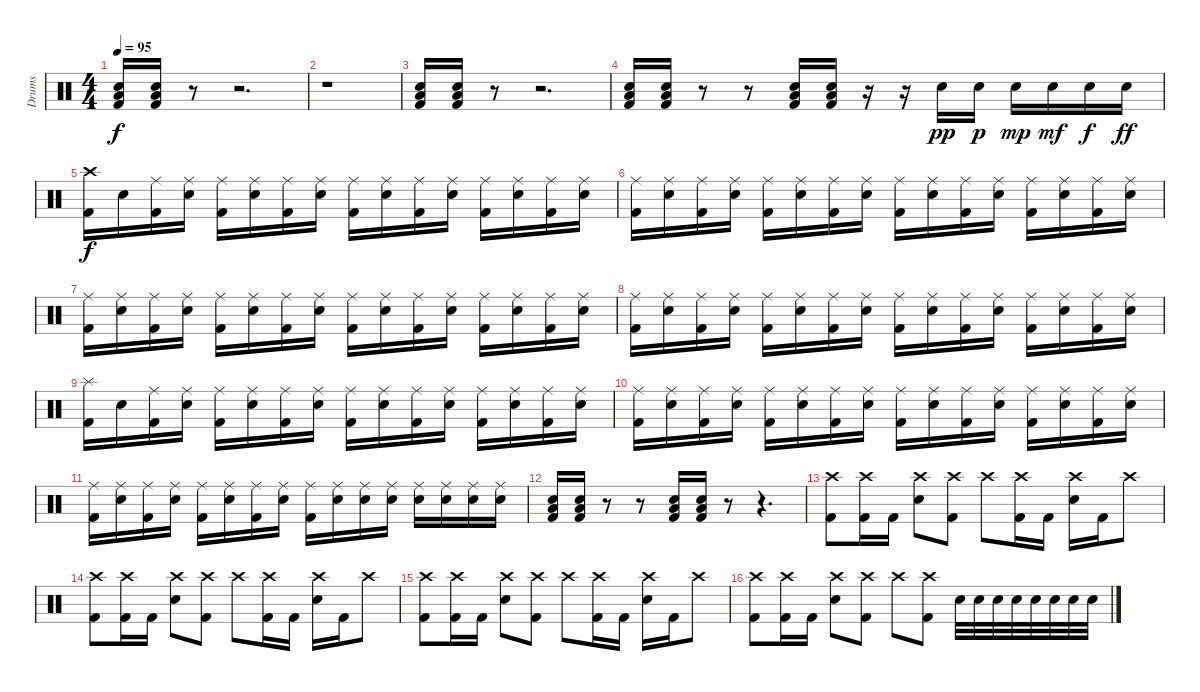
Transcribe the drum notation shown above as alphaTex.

\track ("Drums" "Drums") {instrument percussion}
\staff {score}
\articulation defaults
\ts (4 4)
\tempo 95
\clef neutral
\ks c
("Low Floor Tom (hit)" "Snare (hit) 2" "Kick (hit) 2").16{dy f} ("Low Floor Tom (hit)" "Snare (hit) 2" "Kick (hit) 2").16 r.8 r.2{d} |
r.1 |
("Low Floor Tom (hit)" "Snare (hit) 2" "Kick (hit) 2").16 ("Low Floor Tom (hit)" "Snare (hit) 2" "Kick (hit) 2").16 r.8 r.2{d} |
("Low Floor Tom (hit)" "Snare (hit) 2" "Kick (hit) 2").16 ("Low Floor Tom (hit)" "Snare (hit) 2" "Kick (hit) 2").16 r.8 r.8 ("Low Floor Tom (hit)" "Snare (hit) 2" "Kick (hit) 2").16 ("Low Floor Tom (hit)" "Snare (hit) 2" "Kick (hit) 2").16 r.16 r.16 "Snare (hit) 2".16{dy pp} "Snare (hit) 2".16{dy p} "Snare (hit) 2".16{dy mp} "Snare (hit) 2".16{dy mf} "Snare (hit) 2".16{dy f} "Snare (hit) 2".16{dy ff} |
("Crash high (hit)" "Kick (hit) 2").16{dy f} "Snare (hit) 2".16 ("Ride (middle)" "Kick (hit) 2").16 ("Ride (middle)" "Snare (hit) 2").16 ("Ride (middle)" "Kick (hit) 2").16 ("Ride (middle)" "Snare (hit) 2").16 ("Ride (middle)" "Kick (hit) 2").16 ("Ride (middle)" "Snare (hit) 2").16 ("Ride (middle)" "Kick (hit) 2").16 ("Ride (middle)" "Snare (hit) 2").16 ("Ride (middle)" "Kick (hit) 2").16 ("Ride (middle)" "Snare (hit) 2").16 ("Ride (middle)" "Kick (hit) 2").16 ("Ride (middle)" "Snare (hit) 2").16 ("Ride (middle)" "Kick (hit) 2").16 ("Ride (middle)" "Snare (hit) 2").16 |
("Ride (middle)" "Kick (hit) 2").16 ("Ride (middle)" "Snare (hit) 2").16 ("Ride (middle)" "Kick (hit) 2").16 ("Ride (middle)" "Snare (hit) 2").16 ("Ride (middle)" "Kick (hit) 2").16 ("Ride (middle)" "Snare (hit) 2").16 ("Ride (middle)" "Kick (hit) 2").16 ("Ride (middle)" "Snare (hit) 2").16 ("Ride (middle)" "Kick (hit) 2").16 ("Ride (middle)" "Snare (hit) 2").16 ("Ride (middle)" "Kick (hit) 2").16 ("Ride (middle)" "Snare (hit) 2").16 ("Ride (middle)" "Kick (hit) 2").16 ("Ride (middle)" "Snare (hit) 2").16 ("Ride (middle)" "Kick (hit) 2").16 ("Ride (middle)" "Snare (hit) 2").16 |
("Ride (middle)" "Kick (hit) 2").16 ("Ride (middle)" "Snare (hit) 2").16 ("Ride (middle)" "Kick (hit) 2").16 ("Ride (middle)" "Snare (hit) 2").16 ("Ride (middle)" "Kick (hit) 2").16 ("Ride (middle)" "Snare (hit) 2").16 ("Ride (middle)" "Kick (hit) 2").16 ("Ride (middle)" "Snare (hit) 2").16 ("Ride (middle)" "Kick (hit) 2").16 ("Ride (middle)" "Snare (hit) 2").16 ("Ride (middle)" "Kick (hit) 2").16 ("Ride (middle)" "Snare (hit) 2").16 ("Ride (middle)" "Kick (hit) 2").16 ("Ride (middle)" "Snare (hit) 2").16 ("Ride (middle)" "Kick (hit) 2").16 ("Ride (middle)" "Snare (hit) 2").16 |
("Ride (middle)" "Kick (hit) 2").16 ("Ride (middle)" "Snare (hit) 2").16 ("Ride (middle)" "Kick (hit) 2").16 ("Ride (middle)" "Snare (hit) 2").16 ("Ride (middle)" "Kick (hit) 2").16 ("Ride (middle)" "Snare (hit) 2").16 ("Ride (middle)" "Kick (hit) 2").16 ("Ride (middle)" "Snare (hit) 2").16 ("Ride (middle)" "Kick (hit) 2").16 ("Ride (middle)" "Snare (hit) 2").16 ("Ride (middle)" "Kick (hit) 2").16 ("Ride (middle)" "Snare (hit) 2").16 ("Ride (middle)" "Kick (hit) 2").16 ("Ride (middle)" "Snare (hit) 2").16 ("Ride (middle)" "Kick (hit) 2").16 ("Ride (middle)" "Snare (hit) 2").16 |
("Splash (hit)" "Kick (hit) 2").16 "Snare (hit) 2".16 ("Ride (middle)" "Kick (hit) 2").16 ("Ride (middle)" "Snare (hit) 2").16 ("Ride (middle)" "Kick (hit) 2").16 ("Ride (middle)" "Snare (hit) 2").16 ("Ride (middle)" "Kick (hit) 2").16 ("Ride (middle)" "Snare (hit) 2").16 ("Ride (middle)" "Kick (hit) 2").16 ("Ride (middle)" "Snare (hit) 2").16 ("Ride (middle)" "Kick (hit) 2").16 ("Ride (middle)" "Snare (hit) 2").16 ("Ride (middle)" "Kick (hit) 2").16 ("Ride (middle)" "Snare (hit) 2").16 ("Ride (middle)" "Kick (hit) 2").16 ("Ride (middle)" "Snare (hit) 2").16 |
("Ride (middle)" "Kick (hit) 2").16 ("Ride (middle)" "Snare (hit) 2").16 ("Ride (middle)" "Kick (hit) 2").16 ("Ride (middle)" "Snare (hit) 2").16 ("Ride (middle)" "Kick (hit) 2").16 ("Ride (middle)" "Snare (hit) 2").16 ("Ride (middle)" "Kick (hit) 2").16 ("Ride (middle)" "Snare (hit) 2").16 ("Ride (middle)" "Kick (hit) 2").16 ("Ride (middle)" "Snare (hit) 2").16 ("Ride (middle)" "Kick (hit) 2").16 ("Ride (middle)" "Snare (hit) 2").16 ("Ride (middle)" "Kick (hit) 2").16 ("Ride (middle)" "Snare (hit) 2").16 ("Ride (middle)" "Kick (hit) 2").16 ("Ride (middle)" "Snare (hit) 2").16 |
("Ride (middle)" "Kick (hit) 2").16 ("Ride (middle)" "Snare (hit) 2").16 ("Ride (middle)" "Kick (hit) 2").16 ("Ride (middle)" "Snare (hit) 2").16 ("Ride (middle)" "Kick (hit) 2").16 ("Ride (middle)" "Snare (hit) 2").16 ("Ride (middle)" "Kick (hit) 2").16 ("Ride (middle)" "Snare (hit) 2").16 ("Ride (middle)" "Kick (hit) 2").16 ("Ride (middle)" "Snare (hit) 2").16 ("Ride (middle)" "Snare (hit) 2").16 ("Ride (middle)" "Snare (hit) 2").16 ("Ride (middle)" "Snare (hit) 2").16 ("Ride (middle)" "Snare (hit) 2").16 ("Ride (middle)" "Snare (hit) 2").16 ("Ride (middle)" "Snare (hit) 2").16 |
("Low Floor Tom (hit)" "Snare (hit) 2" "Kick (hit) 2").16 ("Low Floor Tom (hit)" "Snare (hit) 2" "Kick (hit) 2").16 r.8 r.8 ("Low Floor Tom (hit)" "Snare (hit) 2" "Kick (hit) 2").16 ("Low Floor Tom (hit)" "Snare (hit) 2" "Kick (hit) 2").16 r.8 r.4{d} |
("Crash high (hit)" "Kick (hit) 2").8 ("Crash high (hit)" "Kick (hit) 2").16 "Kick (hit) 2".16 ("Crash high (hit)" "Snare (hit) 2").8 ("Crash high (hit)" "Kick (hit) 2").8 "Crash high (hit)".8 ("Crash high (hit)" "Kick (hit) 2").16 "Kick (hit) 2".16 ("Crash high (hit)" "Snare (hit) 2").16 "Kick (hit) 2".16 "Crash high (hit)".8 |
("Crash high (hit)" "Kick (hit) 2").8 ("Crash high (hit)" "Kick (hit) 2").16 "Kick (hit) 2".16 ("Crash high (hit)" "Snare (hit) 2").8 ("Crash high (hit)" "Kick (hit) 2").8 "Crash high (hit)".8 ("Crash high (hit)" "Kick (hit) 2").16 "Kick (hit) 2".16 ("Crash high (hit)" "Snare (hit) 2").16 "Kick (hit) 2".16 "Crash high (hit)".8 |
("Crash high (hit)" "Kick (hit) 2").8 ("Crash high (hit)" "Kick (hit) 2").16 "Kick (hit) 2".16 ("Crash high (hit)" "Snare (hit) 2").8 ("Crash high (hit)" "Kick (hit) 2").8 "Crash high (hit)".8 ("Crash high (hit)" "Kick (hit) 2").16 "Kick (hit) 2".16 ("Crash high (hit)" "Snare (hit) 2").16 "Kick (hit) 2".16 "Crash high (hit)".8 |
("Crash high (hit)" "Kick (hit) 2").8 ("Crash high (hit)" "Kick (hit) 2").16 "Kick (hit) 2".16 ("Crash high (hit)" "Snare (hit) 2").8 ("Crash high (hit)" "Kick (hit) 2").8 "Crash high (hit)".8 ("Crash high (hit)" "Kick (hit) 2").8 "Snare (hit) 2".32 "Snare (hit) 2".32 "Snare (hit) 2".32 "Snare (hit) 2".32 "Snare (hit) 2".32 "Snare (hit) 2".32 "Snare (hit) 2".32 "Snare (hit) 2".32
